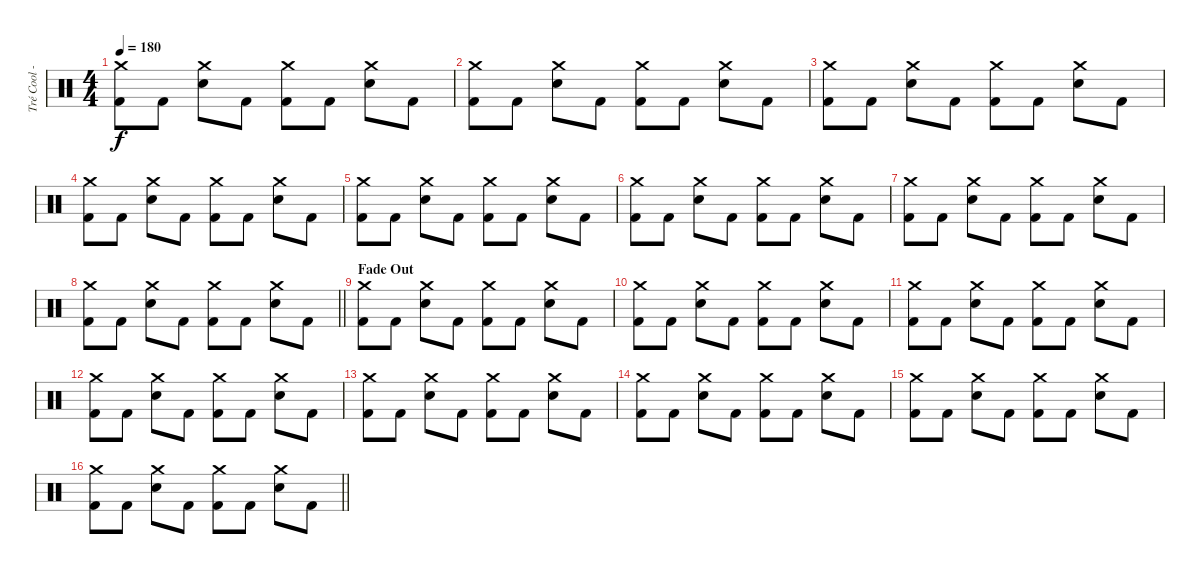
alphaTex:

\track ("Tré Cool - Drums" "Tré Cool -") {instrument percussion}
\staff {score}
\articulation defaults
\ts (4 4)
\tempo 180
\clef neutral
\ks c
("Crash medium (hit)" "Kick (hit) 2").8{dy f} "Kick (hit) 2".8 ("Crash medium (hit)" "Electric Snare (hit)").8 "Kick (hit) 2".8 ("Crash medium (hit)" "Kick (hit) 2").8 "Kick (hit) 2".8 ("Crash medium (hit)" "Electric Snare (hit)").8 "Kick (hit) 2".8 |
("Crash medium (hit)" "Kick (hit) 2").8 "Kick (hit) 2".8 ("Crash medium (hit)" "Electric Snare (hit)").8 "Kick (hit) 2".8 ("Crash medium (hit)" "Kick (hit) 2").8 "Kick (hit) 2".8 ("Crash medium (hit)" "Electric Snare (hit)").8 "Kick (hit) 2".8 |
("Crash medium (hit)" "Kick (hit) 2").8 "Kick (hit) 2".8 ("Crash medium (hit)" "Electric Snare (hit)").8 "Kick (hit) 2".8 ("Crash medium (hit)" "Kick (hit) 2").8 "Kick (hit) 2".8 ("Crash medium (hit)" "Electric Snare (hit)").8 "Kick (hit) 2".8 |
("Crash medium (hit)" "Kick (hit) 2").8 "Kick (hit) 2".8 ("Crash medium (hit)" "Electric Snare (hit)").8 "Kick (hit) 2".8 ("Crash medium (hit)" "Kick (hit) 2").8 "Kick (hit) 2".8 ("Crash medium (hit)" "Electric Snare (hit)").8 "Kick (hit) 2".8 |
("Crash medium (hit)" "Kick (hit) 2").8 "Kick (hit) 2".8 ("Crash medium (hit)" "Electric Snare (hit)").8 "Kick (hit) 2".8 ("Crash medium (hit)" "Kick (hit) 2").8 "Kick (hit) 2".8 ("Crash medium (hit)" "Electric Snare (hit)").8 "Kick (hit) 2".8 |
("Crash medium (hit)" "Kick (hit) 2").8 "Kick (hit) 2".8 ("Crash medium (hit)" "Electric Snare (hit)").8 "Kick (hit) 2".8 ("Crash medium (hit)" "Kick (hit) 2").8 "Kick (hit) 2".8 ("Crash medium (hit)" "Electric Snare (hit)").8 "Kick (hit) 2".8 |
("Crash medium (hit)" "Kick (hit) 2").8 "Kick (hit) 2".8 ("Crash medium (hit)" "Electric Snare (hit)").8 "Kick (hit) 2".8 ("Crash medium (hit)" "Kick (hit) 2").8 "Kick (hit) 2".8 ("Crash medium (hit)" "Electric Snare (hit)").8 "Kick (hit) 2".8 |
\barLineRight lightlight
("Crash medium (hit)" "Kick (hit) 2").8 "Kick (hit) 2".8 ("Crash medium (hit)" "Electric Snare (hit)").8 "Kick (hit) 2".8 ("Crash medium (hit)" "Kick (hit) 2").8 "Kick (hit) 2".8 ("Crash medium (hit)" "Electric Snare (hit)").8 "Kick (hit) 2".8 |
\section ("" "Fade Out")
("Crash medium (hit)" "Kick (hit) 2").8{volume 10} "Kick (hit) 2".8 ("Crash medium (hit)" "Electric Snare (hit)").8 "Kick (hit) 2".8 ("Crash medium (hit)" "Kick (hit) 2").8 "Kick (hit) 2".8{volume 9} ("Crash medium (hit)" "Electric Snare (hit)").8 "Kick (hit) 2".8 |
("Crash medium (hit)" "Kick (hit) 2").8 "Kick (hit) 2".8 ("Crash medium (hit)" "Electric Snare (hit)").8 "Kick (hit) 2".8 ("Crash medium (hit)" "Kick (hit) 2").8 "Kick (hit) 2".8{volume 8} ("Crash medium (hit)" "Electric Snare (hit)").8 "Kick (hit) 2".8 |
("Crash medium (hit)" "Kick (hit) 2").8 "Kick (hit) 2".8 ("Crash medium (hit)" "Electric Snare (hit)").8 "Kick (hit) 2".8 ("Crash medium (hit)" "Kick (hit) 2").8 "Kick (hit) 2".8 ("Crash medium (hit)" "Electric Snare (hit)").8{volume 7} "Kick (hit) 2".8 |
("Crash medium (hit)" "Kick (hit) 2").8 "Kick (hit) 2".8 ("Crash medium (hit)" "Electric Snare (hit)").8 "Kick (hit) 2".8 ("Crash medium (hit)" "Kick (hit) 2").8{volume 6} "Kick (hit) 2".8 ("Crash medium (hit)" "Electric Snare (hit)").8 "Kick (hit) 2".8 |
("Crash medium (hit)" "Kick (hit) 2").8 "Kick (hit) 2".8 ("Crash medium (hit)" "Electric Snare (hit)").8{volume 5} "Kick (hit) 2".8 ("Crash medium (hit)" "Kick (hit) 2").8 "Kick (hit) 2".8 ("Crash medium (hit)" "Electric Snare (hit)").8 "Kick (hit) 2".8 |
("Crash medium (hit)" "Kick (hit) 2").8 "Kick (hit) 2".8{volume 4} ("Crash medium (hit)" "Electric Snare (hit)").8 "Kick (hit) 2".8 ("Crash medium (hit)" "Kick (hit) 2").8 "Kick (hit) 2".8 ("Crash medium (hit)" "Electric Snare (hit)").8 "Kick (hit) 2".8 |
("Crash medium (hit)" "Kick (hit) 2").8 "Kick (hit) 2".8{volume 3} ("Crash medium (hit)" "Electric Snare (hit)").8 "Kick (hit) 2".8 ("Crash medium (hit)" "Kick (hit) 2").8 "Kick (hit) 2".8 ("Crash medium (hit)" "Electric Snare (hit)").8 "Kick (hit) 2".8 |
\barLineRight lightlight
("Crash medium (hit)" "Kick (hit) 2").8{volume 2} "Kick (hit) 2".8 ("Crash medium (hit)" "Electric Snare (hit)").8 "Kick (hit) 2".8 ("Crash medium (hit)" "Kick (hit) 2").8 "Kick (hit) 2".8{volume 1} ("Crash medium (hit)" "Electric Snare (hit)").8 "Kick (hit) 2".8
